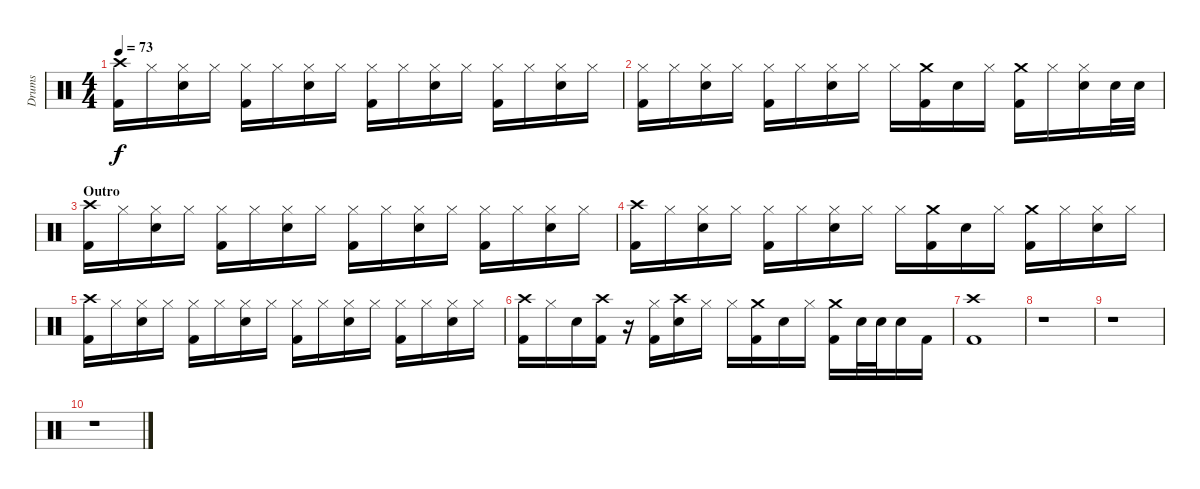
\track ("Drums" "Drums") {instrument percussion}
\staff {score}
\articulation defaults
\ts (4 4)
\tempo 73
\clef neutral
\ks c
("Crash high (hit)" "Kick (hit) 2").16{dy f} "Hi-Hat (closed)".16 ("Hi-Hat (closed)" "Snare (hit) 2").16 "Hi-Hat (closed)".16 ("Hi-Hat (closed)" "Kick (hit) 2").16 "Hi-Hat (closed)".16 ("Hi-Hat (closed)" "Snare (hit) 2").16 "Hi-Hat (closed)".16 ("Hi-Hat (closed)" "Kick (hit) 2").16 "Hi-Hat (closed)".16 ("Hi-Hat (closed)" "Snare (hit) 2").16 "Hi-Hat (closed)".16 ("Hi-Hat (closed)" "Kick (hit) 2").16 "Hi-Hat (closed)".16 ("Hi-Hat (closed)" "Snare (hit) 2").16 "Hi-Hat (closed)".16 |
("Hi-Hat (closed)" "Kick (hit) 2").16 "Hi-Hat (closed)".16 ("Hi-Hat (closed)" "Snare (hit) 2").16 "Hi-Hat (closed)".16 ("Hi-Hat (closed)" "Kick (hit) 2").16 "Hi-Hat (closed)".16 ("Hi-Hat (closed)" "Snare (hit) 2").16 "Hi-Hat (closed)".16 "Hi-Hat (closed)".16 ("Crash medium (hit)" "Kick (hit) 2").16 "Snare (hit) 2".16 "Hi-Hat (closed)".16 ("Crash medium (hit)" "Kick (hit) 2").16 "Hi-Hat (closed)".16 ("Hi-Hat (closed)" "Snare (hit) 2").16 "Snare (hit) 2".32 "Snare (hit) 2".32 |
\section ("" "Outro")
("Crash high (hit)" "Kick (hit) 2").16 "Hi-Hat (closed)".16 ("Hi-Hat (closed)" "Snare (hit) 2").16 "Hi-Hat (closed)".16 ("Hi-Hat (closed)" "Kick (hit) 2").16 "Hi-Hat (closed)".16 ("Hi-Hat (closed)" "Snare (hit) 2").16 "Hi-Hat (closed)".16 ("Hi-Hat (closed)" "Kick (hit) 2").16 "Hi-Hat (closed)".16 ("Hi-Hat (closed)" "Snare (hit) 2").16 "Hi-Hat (closed)".16 ("Hi-Hat (closed)" "Kick (hit) 2").16 "Hi-Hat (closed)".16 ("Hi-Hat (closed)" "Snare (hit) 2").16 "Hi-Hat (closed)".16 |
("Crash high (hit)" "Kick (hit) 2").16 "Hi-Hat (closed)".16 ("Hi-Hat (closed)" "Snare (hit) 2").16 "Hi-Hat (closed)".16 ("Hi-Hat (closed)" "Kick (hit) 2").16 "Hi-Hat (closed)".16 ("Hi-Hat (closed)" "Snare (hit) 2").16 "Hi-Hat (closed)".16 "Hi-Hat (closed)".16 ("Crash medium (hit)" "Kick (hit) 2").16 "Snare (hit) 2".16 "Hi-Hat (closed)".16 ("Crash medium (hit)" "Kick (hit) 2").16 "Hi-Hat (closed)".16 ("Hi-Hat (closed)" "Snare (hit) 2").16 "Hi-Hat (closed)".16 |
("Crash high (hit)" "Kick (hit) 2").16 "Hi-Hat (closed)".16 ("Hi-Hat (closed)" "Snare (hit) 2").16 "Hi-Hat (closed)".16 ("Hi-Hat (closed)" "Kick (hit) 2").16 "Hi-Hat (closed)".16 ("Hi-Hat (closed)" "Snare (hit) 2").16 "Hi-Hat (closed)".16 ("Hi-Hat (closed)" "Kick (hit) 2").16 "Hi-Hat (closed)".16 ("Hi-Hat (closed)" "Snare (hit) 2").16 "Hi-Hat (closed)".16 ("Hi-Hat (closed)" "Kick (hit) 2").16 "Hi-Hat (closed)".16 ("Hi-Hat (closed)" "Snare (hit) 2").16 "Hi-Hat (closed)".16 |
("Crash high (hit)" "Kick (hit) 2").16 "Hi-Hat (closed)".16 "Snare (hit) 2".16 ("Crash high (hit)" "Kick (hit) 2").16 r.16 ("Hi-Hat (closed)" "Kick (hit) 2").16 ("Crash high (hit)" "Snare (hit) 2").16 "Hi-Hat (closed)".16 "Hi-Hat (closed)".16 ("Crash medium (hit)" "Kick (hit) 2").16 "Snare (hit) 2".16 "Hi-Hat (closed)".16 ("Crash medium (hit)" "Kick (hit) 2").16 "Snare (hit) 2".32 "Snare (hit) 2".32 "Snare (hit) 2".16 "Kick (hit) 2".16 |
("Crash high (hit)" "Kick (hit) 2").1 |
r.1 |
r.1 |
r.1
